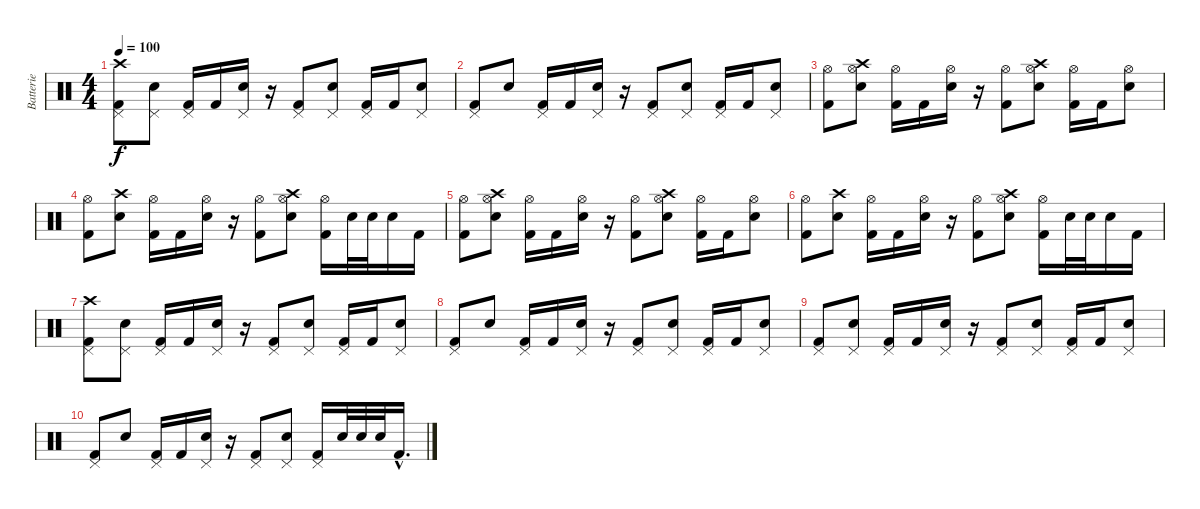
\track ("Batterie" "Batterie") {instrument percussion}
\staff {score}
\articulation defaults
\ts (4 4)
\tempo 100
\clef neutral
\ks c
("Crash high (hit)" "Pedal Hi-Hat (hit)" "Kick (hit) 2").8{dy f} ("Pedal Hi-Hat (hit)" "Electric Snare (hit)").8 ("Pedal Hi-Hat (hit)" "Kick (hit) 2").16 "Kick (hit) 2".16 ("Pedal Hi-Hat (hit)" "Electric Snare (hit)").16 r.16 ("Pedal Hi-Hat (hit)" "Kick (hit) 2").8 ("Pedal Hi-Hat (hit)" "Electric Snare (hit)").8 ("Pedal Hi-Hat (hit)" "Kick (hit) 2").16 "Kick (hit) 2".16 ("Pedal Hi-Hat (hit)" "Electric Snare (hit)").8 |
("Pedal Hi-Hat (hit)" "Kick (hit) 2").8 "Electric Snare (hit)".8 ("Pedal Hi-Hat (hit)" "Kick (hit) 2").16 "Kick (hit) 2".16 ("Pedal Hi-Hat (hit)" "Electric Snare (hit)").16 r.16 ("Pedal Hi-Hat (hit)" "Kick (hit) 2").8 ("Pedal Hi-Hat (hit)" "Electric Snare (hit)").8 ("Pedal Hi-Hat (hit)" "Kick (hit) 2").16 "Kick (hit) 2".16 ("Pedal Hi-Hat (hit)" "Electric Snare (hit)").8 |
("Hi-Hat (open)" "Kick (hit) 2").8 ("Crash high (hit)" "Hi-Hat (open)" "Electric Snare (hit)").8 ("Hi-Hat (open)" "Kick (hit) 2").16 "Kick (hit) 2".16 ("Hi-Hat (open)" "Electric Snare (hit)").16 r.16 ("Hi-Hat (open)" "Kick (hit) 2").8 ("Crash high (hit)" "Hi-Hat (open)" "Electric Snare (hit)").8 ("Hi-Hat (open)" "Kick (hit) 2").16 "Kick (hit) 2".16 ("Hi-Hat (open)" "Electric Snare (hit)").8 |
("Hi-Hat (open)" "Kick (hit) 2").8 ("Crash high (hit)" "Electric Snare (hit)").8 ("Hi-Hat (open)" "Kick (hit) 2").16 "Kick (hit) 2".16 ("Hi-Hat (open)" "Electric Snare (hit)").16 r.16 ("Hi-Hat (open)" "Kick (hit) 2").8 ("Crash high (hit)" "Hi-Hat (open)" "Electric Snare (hit)").8 ("Hi-Hat (open)" "Kick (hit) 2").16 "Electric Snare (hit)".32 "Electric Snare (hit)".32 "Electric Snare (hit)".16 "Kick (hit) 2".16 |
("Hi-Hat (open)" "Kick (hit) 2").8 ("Crash high (hit)" "Hi-Hat (open)" "Electric Snare (hit)").8 ("Hi-Hat (open)" "Kick (hit) 2").16 "Kick (hit) 2".16 ("Hi-Hat (open)" "Electric Snare (hit)").16 r.16 ("Hi-Hat (open)" "Kick (hit) 2").8 ("Crash high (hit)" "Hi-Hat (open)" "Electric Snare (hit)").8 ("Hi-Hat (open)" "Kick (hit) 2").16 "Kick (hit) 2".16 ("Hi-Hat (open)" "Electric Snare (hit)").8 |
("Hi-Hat (open)" "Kick (hit) 2").8 ("Crash high (hit)" "Electric Snare (hit)").8 ("Hi-Hat (open)" "Kick (hit) 2").16 "Kick (hit) 2".16 ("Hi-Hat (open)" "Electric Snare (hit)").16 r.16 ("Hi-Hat (open)" "Kick (hit) 2").8 ("Crash high (hit)" "Hi-Hat (open)" "Electric Snare (hit)").8 ("Hi-Hat (open)" "Kick (hit) 2").16 "Electric Snare (hit)".32 "Electric Snare (hit)".32 "Electric Snare (hit)".16 "Kick (hit) 2".16 |
("Crash high (hit)" "Pedal Hi-Hat (hit)" "Kick (hit) 2").8 ("Pedal Hi-Hat (hit)" "Electric Snare (hit)").8 ("Pedal Hi-Hat (hit)" "Kick (hit) 2").16 "Kick (hit) 2".16 ("Pedal Hi-Hat (hit)" "Electric Snare (hit)").16 r.16 ("Pedal Hi-Hat (hit)" "Kick (hit) 2").8 ("Pedal Hi-Hat (hit)" "Electric Snare (hit)").8 ("Pedal Hi-Hat (hit)" "Kick (hit) 2").16 "Kick (hit) 2".16 ("Pedal Hi-Hat (hit)" "Electric Snare (hit)").8 |
("Pedal Hi-Hat (hit)" "Kick (hit) 2").8 "Electric Snare (hit)".8 ("Pedal Hi-Hat (hit)" "Kick (hit) 2").16 "Kick (hit) 2".16 ("Pedal Hi-Hat (hit)" "Electric Snare (hit)").16 r.16 ("Pedal Hi-Hat (hit)" "Kick (hit) 2").8 ("Pedal Hi-Hat (hit)" "Electric Snare (hit)").8 ("Pedal Hi-Hat (hit)" "Kick (hit) 2").16 "Kick (hit) 2".16 ("Pedal Hi-Hat (hit)" "Electric Snare (hit)").8 |
("Pedal Hi-Hat (hit)" "Kick (hit) 2").8 ("Pedal Hi-Hat (hit)" "Electric Snare (hit)").8 ("Pedal Hi-Hat (hit)" "Kick (hit) 2").16 "Kick (hit) 2".16 ("Pedal Hi-Hat (hit)" "Electric Snare (hit)").16 r.16 ("Pedal Hi-Hat (hit)" "Kick (hit) 2").8 ("Pedal Hi-Hat (hit)" "Electric Snare (hit)").8 ("Pedal Hi-Hat (hit)" "Kick (hit) 2").16 "Kick (hit) 2".16 ("Pedal Hi-Hat (hit)" "Electric Snare (hit)").8 |
("Pedal Hi-Hat (hit)" "Kick (hit) 2").8 "Electric Snare (hit)".8 ("Pedal Hi-Hat (hit)" "Kick (hit) 2").16 "Kick (hit) 2".16 ("Pedal Hi-Hat (hit)" "Electric Snare (hit)").16 r.16 ("Pedal Hi-Hat (hit)" "Kick (hit) 2").8 ("Pedal Hi-Hat (hit)" "Electric Snare (hit)").8 ("Pedal Hi-Hat (hit)" "Kick (hit) 2").16 "Electric Snare (hit)".32 "Electric Snare (hit)".32 "Electric Snare (hit)".32 "Kick (hit) 2"{hac}.16{d}
